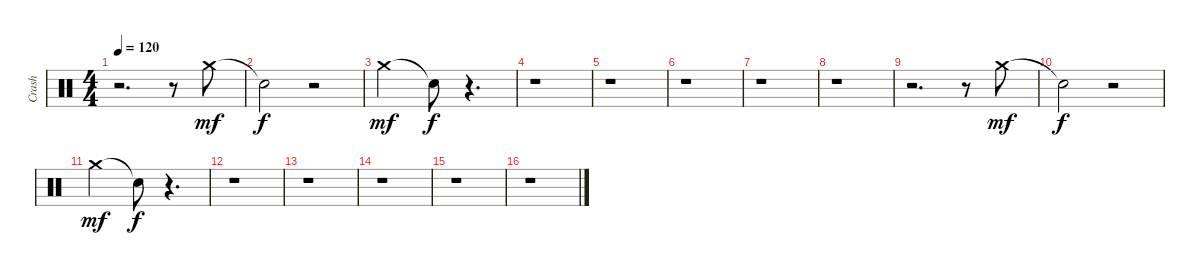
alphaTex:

\track ("Crash" "Crash") {instrument percussion}
\staff {score}
\articulation defaults
\ts (4 4)
\tempo 120
\clef neutral
\ks c
r.2{d dy f} r.8 "Crash medium (hit)".8{dy mf} |
"Snare (hit)"{t}.2{dy f} r.2 |
"Crash medium (hit)".2{dy mf} "Snare (hit)"{t}.8{dy f} r.4{d} |
r.1 |
r.1 |
r.1 |
r.1 |
r.1 |
r.2{d} r.8 "Crash medium (hit)".8{dy mf} |
"Snare (hit)"{t}.2{dy f} r.2 |
"Crash medium (hit)".2{dy mf} "Snare (hit)"{t}.8{dy f} r.4{d} |
r.1 |
r.1 |
r.1 |
r.1 |
r.1
